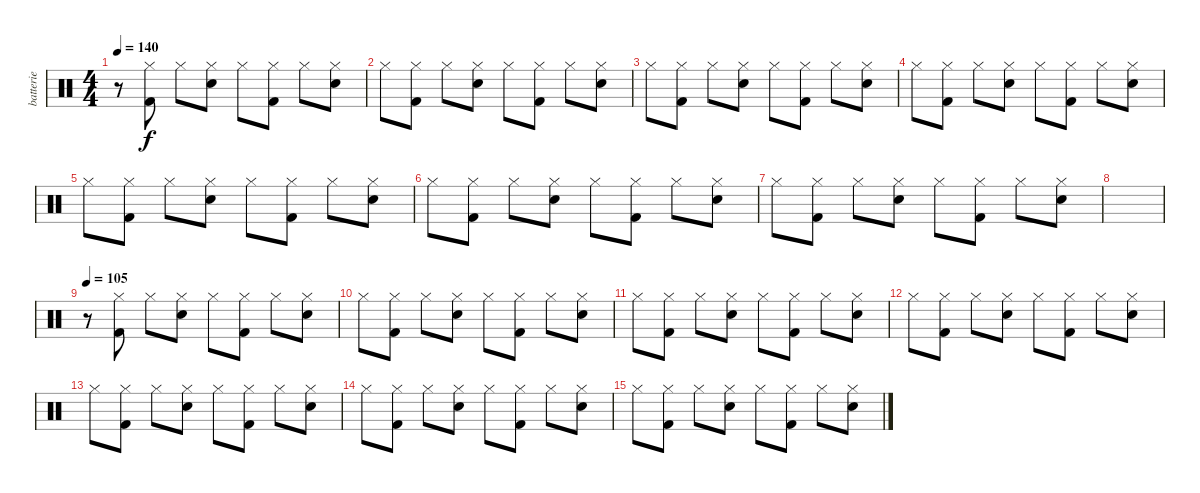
\track ("batterie" "batterie") {instrument percussion}
\staff {score}
\articulation defaults
\ts (4 4)
\tempo 140
\tempo 70
\tempo 140
\clef neutral
\ks c
r.8{dy f} ("Hi-Hat (closed)" "Kick (hit) 2").8 "Hi-Hat (closed)".8 ("Hi-Hat (closed)" "Electric Snare (hit)").8 "Hi-Hat (closed)".8 ("Hi-Hat (closed)" "Kick (hit) 2").8 "Hi-Hat (closed)".8 ("Hi-Hat (closed)" "Electric Snare (hit)").8 |
"Hi-Hat (closed)".8 ("Hi-Hat (closed)" "Kick (hit) 2").8 "Hi-Hat (closed)".8 ("Hi-Hat (closed)" "Electric Snare (hit)").8 "Hi-Hat (closed)".8 ("Hi-Hat (closed)" "Kick (hit) 2").8 "Hi-Hat (closed)".8 ("Hi-Hat (closed)" "Electric Snare (hit)").8 |
"Hi-Hat (closed)".8 ("Hi-Hat (closed)" "Kick (hit) 2").8 "Hi-Hat (closed)".8 ("Hi-Hat (closed)" "Electric Snare (hit)").8 "Hi-Hat (closed)".8 ("Hi-Hat (closed)" "Kick (hit) 2").8 "Hi-Hat (closed)".8 ("Hi-Hat (closed)" "Electric Snare (hit)").8 |
"Hi-Hat (closed)".8 ("Hi-Hat (closed)" "Kick (hit) 2").8 "Hi-Hat (closed)".8 ("Hi-Hat (closed)" "Electric Snare (hit)").8 "Hi-Hat (closed)".8 ("Hi-Hat (closed)" "Kick (hit) 2").8 "Hi-Hat (closed)".8 ("Hi-Hat (closed)" "Electric Snare (hit)").8 |
"Hi-Hat (closed)".8 ("Hi-Hat (closed)" "Kick (hit) 2").8 "Hi-Hat (closed)".8 ("Hi-Hat (closed)" "Electric Snare (hit)").8 "Hi-Hat (closed)".8 ("Hi-Hat (closed)" "Kick (hit) 2").8 "Hi-Hat (closed)".8 ("Hi-Hat (closed)" "Electric Snare (hit)").8 |
"Hi-Hat (closed)".8 ("Hi-Hat (closed)" "Kick (hit) 2").8 "Hi-Hat (closed)".8 ("Hi-Hat (closed)" "Electric Snare (hit)").8 "Hi-Hat (closed)".8 ("Hi-Hat (closed)" "Kick (hit) 2").8 "Hi-Hat (closed)".8 ("Hi-Hat (closed)" "Electric Snare (hit)").8 |
"Hi-Hat (closed)".8 ("Hi-Hat (closed)" "Kick (hit) 2").8 "Hi-Hat (closed)".8 ("Hi-Hat (closed)" "Electric Snare (hit)").8 "Hi-Hat (closed)".8 ("Hi-Hat (closed)" "Kick (hit) 2").8 "Hi-Hat (closed)".8 ("Hi-Hat (closed)" "Electric Snare (hit)").8 |
|
\tempo 105
r.8 ("Hi-Hat (closed)" "Kick (hit) 2").8 "Hi-Hat (closed)".8 ("Hi-Hat (closed)" "Electric Snare (hit)").8 "Hi-Hat (closed)".8 ("Hi-Hat (closed)" "Kick (hit) 2").8 "Hi-Hat (closed)".8 ("Hi-Hat (closed)" "Electric Snare (hit)").8 |
"Hi-Hat (closed)".8 ("Hi-Hat (closed)" "Kick (hit) 2").8 "Hi-Hat (closed)".8 ("Hi-Hat (closed)" "Electric Snare (hit)").8 "Hi-Hat (closed)".8 ("Hi-Hat (closed)" "Kick (hit) 2").8 "Hi-Hat (closed)".8 ("Hi-Hat (closed)" "Electric Snare (hit)").8 |
"Hi-Hat (closed)".8 ("Hi-Hat (closed)" "Kick (hit) 2").8 "Hi-Hat (closed)".8 ("Hi-Hat (closed)" "Electric Snare (hit)").8 "Hi-Hat (closed)".8 ("Hi-Hat (closed)" "Kick (hit) 2").8 "Hi-Hat (closed)".8 ("Hi-Hat (closed)" "Electric Snare (hit)").8 |
"Hi-Hat (closed)".8 ("Hi-Hat (closed)" "Kick (hit) 2").8 "Hi-Hat (closed)".8 ("Hi-Hat (closed)" "Electric Snare (hit)").8 "Hi-Hat (closed)".8 ("Hi-Hat (closed)" "Kick (hit) 2").8 "Hi-Hat (closed)".8 ("Hi-Hat (closed)" "Electric Snare (hit)").8 |
"Hi-Hat (closed)".8 ("Hi-Hat (closed)" "Kick (hit) 2").8 "Hi-Hat (closed)".8 ("Hi-Hat (closed)" "Electric Snare (hit)").8 "Hi-Hat (closed)".8 ("Hi-Hat (closed)" "Kick (hit) 2").8 "Hi-Hat (closed)".8 ("Hi-Hat (closed)" "Electric Snare (hit)").8 |
"Hi-Hat (closed)".8 ("Hi-Hat (closed)" "Kick (hit) 2").8 "Hi-Hat (closed)".8 ("Hi-Hat (closed)" "Electric Snare (hit)").8 "Hi-Hat (closed)".8 ("Hi-Hat (closed)" "Kick (hit) 2").8 "Hi-Hat (closed)".8 ("Hi-Hat (closed)" "Electric Snare (hit)").8 |
"Hi-Hat (closed)".8 ("Hi-Hat (closed)" "Kick (hit) 2").8 "Hi-Hat (closed)".8 ("Hi-Hat (closed)" "Electric Snare (hit)").8 "Hi-Hat (closed)".8 ("Hi-Hat (closed)" "Kick (hit) 2").8 "Hi-Hat (closed)".8 ("Hi-Hat (closed)" "Electric Snare (hit)").8
